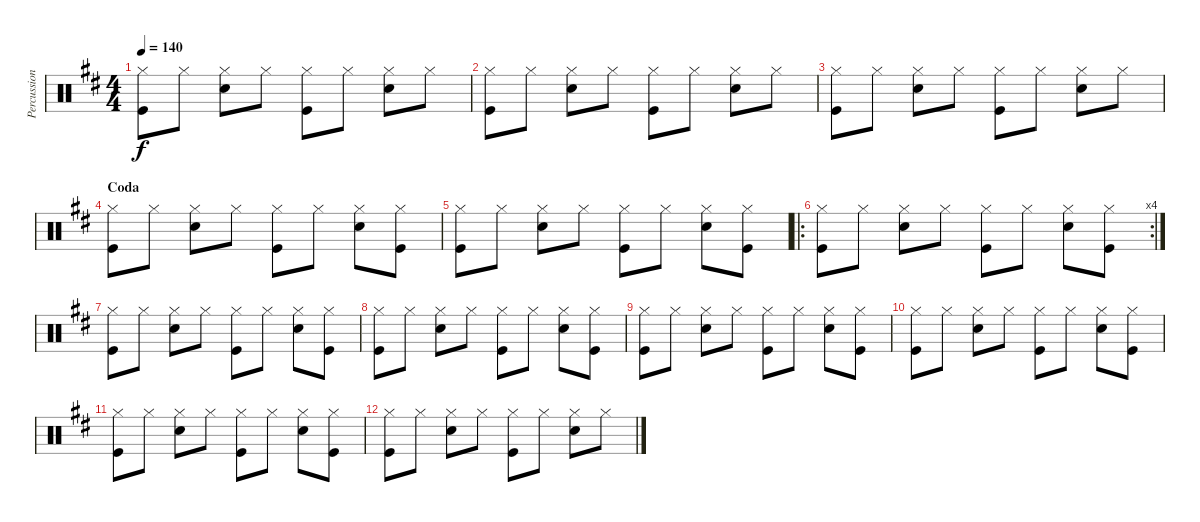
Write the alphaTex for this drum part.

\track ("Percussion" "Percussion") {instrument percussion}
\staff {score}
\articulation defaults
\ts (4 4)
\tempo 140
\clef neutral
\ks d
("Hi-Hat (closed)" "Kick (hit)").8{dy f} "Hi-Hat (closed)".8 ("Hi-Hat (closed)" "Snare (hit) 2").8 "Hi-Hat (closed)".8 ("Hi-Hat (closed)" "Kick (hit)").8 "Hi-Hat (closed)".8 ("Hi-Hat (closed)" "Snare (hit) 2").8 "Hi-Hat (closed)".8 |
("Hi-Hat (closed)" "Kick (hit)").8 "Hi-Hat (closed)".8 ("Hi-Hat (closed)" "Snare (hit) 2").8 "Hi-Hat (closed)".8 ("Hi-Hat (closed)" "Kick (hit)").8 "Hi-Hat (closed)".8 ("Hi-Hat (closed)" "Snare (hit) 2").8 "Hi-Hat (closed)".8 |
("Hi-Hat (closed)" "Kick (hit)").8 "Hi-Hat (closed)".8 ("Hi-Hat (closed)" "Snare (hit) 2").8 "Hi-Hat (closed)".8 ("Hi-Hat (closed)" "Kick (hit)").8 "Hi-Hat (closed)".8 ("Hi-Hat (closed)" "Snare (hit) 2").8 "Hi-Hat (closed)".8 |
\section ("" "Coda")
("Hi-Hat (closed)" "Kick (hit)").8 "Hi-Hat (closed)".8 ("Hi-Hat (closed)" "Snare (hit) 2").8 "Hi-Hat (closed)".8 ("Hi-Hat (closed)" "Kick (hit)").8 "Hi-Hat (closed)".8 ("Hi-Hat (closed)" "Snare (hit) 2").8 ("Hi-Hat (closed)" "Kick (hit)").8 |
("Hi-Hat (closed)" "Kick (hit)").8 "Hi-Hat (closed)".8 ("Hi-Hat (closed)" "Snare (hit) 2").8 "Hi-Hat (closed)".8 ("Hi-Hat (closed)" "Kick (hit)").8 "Hi-Hat (closed)".8 ("Hi-Hat (closed)" "Snare (hit) 2").8 ("Hi-Hat (closed)" "Kick (hit)").8 |
\ro
\rc 4
("Hi-Hat (closed)" "Kick (hit)").8 "Hi-Hat (closed)".8 ("Hi-Hat (closed)" "Snare (hit) 2").8 "Hi-Hat (closed)".8 ("Hi-Hat (closed)" "Kick (hit)").8 "Hi-Hat (closed)".8 ("Hi-Hat (closed)" "Snare (hit) 2").8 ("Hi-Hat (closed)" "Kick (hit)").8 |
("Hi-Hat (closed)" "Kick (hit)").8 "Hi-Hat (closed)".8 ("Hi-Hat (closed)" "Snare (hit) 2").8 "Hi-Hat (closed)".8 ("Hi-Hat (closed)" "Kick (hit)").8 "Hi-Hat (closed)".8 ("Hi-Hat (closed)" "Snare (hit) 2").8 ("Hi-Hat (closed)" "Kick (hit)").8 |
("Hi-Hat (closed)" "Kick (hit)").8 "Hi-Hat (closed)".8 ("Hi-Hat (closed)" "Snare (hit) 2").8 "Hi-Hat (closed)".8 ("Hi-Hat (closed)" "Kick (hit)").8 "Hi-Hat (closed)".8 ("Hi-Hat (closed)" "Snare (hit) 2").8 ("Hi-Hat (closed)" "Kick (hit)").8 |
("Hi-Hat (closed)" "Kick (hit)").8 "Hi-Hat (closed)".8 ("Hi-Hat (closed)" "Snare (hit) 2").8 "Hi-Hat (closed)".8 ("Hi-Hat (closed)" "Kick (hit)").8 "Hi-Hat (closed)".8 ("Hi-Hat (closed)" "Snare (hit) 2").8 ("Hi-Hat (closed)" "Kick (hit)").8 |
("Hi-Hat (closed)" "Kick (hit)").8 "Hi-Hat (closed)".8 ("Hi-Hat (closed)" "Snare (hit) 2").8 "Hi-Hat (closed)".8 ("Hi-Hat (closed)" "Kick (hit)").8 "Hi-Hat (closed)".8 ("Hi-Hat (closed)" "Snare (hit) 2").8 ("Hi-Hat (closed)" "Kick (hit)").8 |
("Hi-Hat (closed)" "Kick (hit)").8 "Hi-Hat (closed)".8 ("Hi-Hat (closed)" "Snare (hit) 2").8 "Hi-Hat (closed)".8 ("Hi-Hat (closed)" "Kick (hit)").8 "Hi-Hat (closed)".8 ("Hi-Hat (closed)" "Snare (hit) 2").8 ("Hi-Hat (closed)" "Kick (hit)").8 |
("Hi-Hat (closed)" "Kick (hit)").8 "Hi-Hat (closed)".8 ("Hi-Hat (closed)" "Snare (hit) 2").8 "Hi-Hat (closed)".8 ("Hi-Hat (closed)" "Kick (hit)").8 "Hi-Hat (closed)".8 ("Hi-Hat (closed)" "Snare (hit) 2").8 "Hi-Hat (closed)".8
